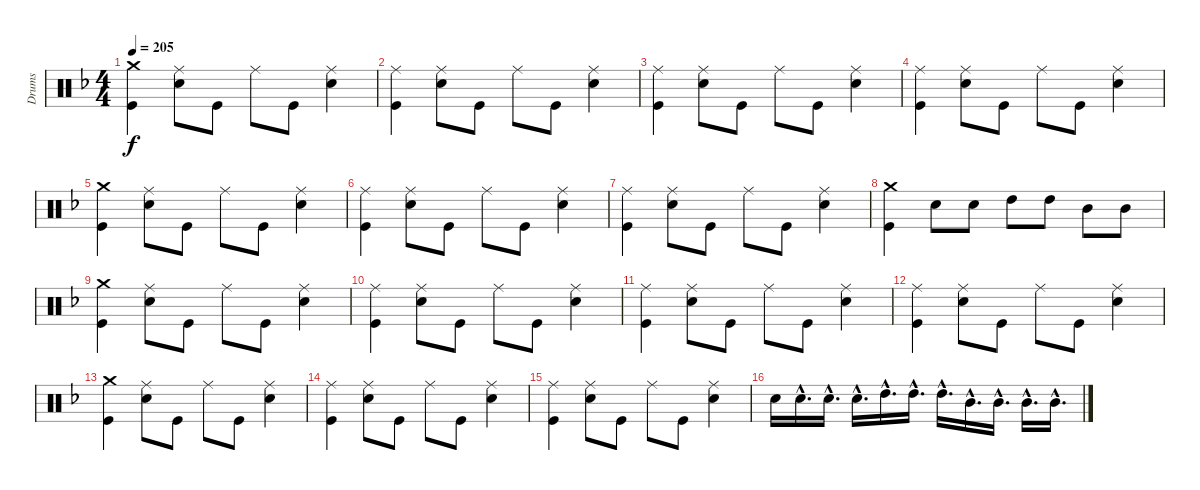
\track ("Drums" "Drums") {instrument percussion}
\staff {score}
\articulation defaults
\ts (4 4)
\tempo 205
\clef neutral
\ks f
("Crash medium (hit)" "Kick (hit)").4{dy f} ("Ride (middle)" "Electric Snare (hit)").8 "Kick (hit)".8 "Ride (middle)".8 "Kick (hit)".8 ("Ride (middle)" "Electric Snare (hit)").4 |
("Ride (middle)" "Kick (hit)").4 ("Ride (middle)" "Electric Snare (hit)").8 "Kick (hit)".8 "Ride (middle)".8 "Kick (hit)".8 ("Ride (middle)" "Electric Snare (hit)").4 |
("Ride (middle)" "Kick (hit)").4 ("Ride (middle)" "Electric Snare (hit)").8 "Kick (hit)".8 "Ride (middle)".8 "Kick (hit)".8 ("Ride (middle)" "Electric Snare (hit)").4 |
("Ride (middle)" "Kick (hit)").4 ("Ride (middle)" "Electric Snare (hit)").8 "Kick (hit)".8 "Ride (middle)".8 "Kick (hit)".8 ("Ride (middle)" "Electric Snare (hit)").4 |
("Crash medium (hit)" "Kick (hit)").4 ("Ride (middle)" "Electric Snare (hit)").8 "Kick (hit)".8 "Ride (middle)".8 "Kick (hit)".8 ("Ride (middle)" "Electric Snare (hit)").4 |
("Ride (middle)" "Kick (hit)").4 ("Ride (middle)" "Electric Snare (hit)").8 "Kick (hit)".8 "Ride (middle)".8 "Kick (hit)".8 ("Ride (middle)" "Electric Snare (hit)").4 |
("Ride (middle)" "Kick (hit)").4 ("Ride (middle)" "Electric Snare (hit)").8 "Kick (hit)".8 "Ride (middle)".8 "Kick (hit)".8 ("Ride (middle)" "Electric Snare (hit)").4 |
("Crash medium (hit)" "Kick (hit)").4 "Electric Snare (hit)".8 "Electric Snare (hit)".8 "High Tom (hit)".8 "High Tom (hit)".8 "Mid Tom (hit)".8 "Mid Tom (hit)".8 |
("Crash medium (hit)" "Kick (hit)").4 ("Ride (middle)" "Electric Snare (hit)").8 "Kick (hit)".8 "Ride (middle)".8 "Kick (hit)".8 ("Ride (middle)" "Electric Snare (hit)").4 |
("Ride (middle)" "Kick (hit)").4 ("Ride (middle)" "Electric Snare (hit)").8 "Kick (hit)".8 "Ride (middle)".8 "Kick (hit)".8 ("Ride (middle)" "Electric Snare (hit)").4 |
("Ride (middle)" "Kick (hit)").4 ("Ride (middle)" "Electric Snare (hit)").8 "Kick (hit)".8 "Ride (middle)".8 "Kick (hit)".8 ("Ride (middle)" "Electric Snare (hit)").4 |
("Ride (middle)" "Kick (hit)").4 ("Ride (middle)" "Electric Snare (hit)").8 "Kick (hit)".8 "Ride (middle)".8 "Kick (hit)".8 ("Ride (middle)" "Electric Snare (hit)").4 |
("Crash medium (hit)" "Kick (hit)").4 ("Ride (middle)" "Electric Snare (hit)").8 "Kick (hit)".8 "Ride (middle)".8 "Kick (hit)".8 ("Ride (middle)" "Electric Snare (hit)").4 |
("Ride (middle)" "Kick (hit)").4 ("Ride (middle)" "Electric Snare (hit)").8 "Kick (hit)".8 "Ride (middle)".8 "Kick (hit)".8 ("Ride (middle)" "Electric Snare (hit)").4 |
("Ride (middle)" "Kick (hit)").4 ("Ride (middle)" "Electric Snare (hit)").8 "Kick (hit)".8 "Ride (middle)".8 "Kick (hit)".8 ("Ride (middle)" "Electric Snare (hit)").4 |
"Electric Snare (hit)".16 "Electric Snare (hit)"{hac}.16{d} "Electric Snare (hit)"{hac}.16{d} "Electric Snare (hit)"{hac}.16{d} "High Tom (hit)"{hac}.16{d} "High Tom (hit)"{hac}.16{d} "High Tom (hit)"{hac}.16{d} "Mid Tom (hit)"{hac}.16{d} "Mid Tom (hit)"{hac}.16{d} "Mid Tom (hit)"{hac}.16{d} "Mid Tom (hit)"{hac}.16{d}
